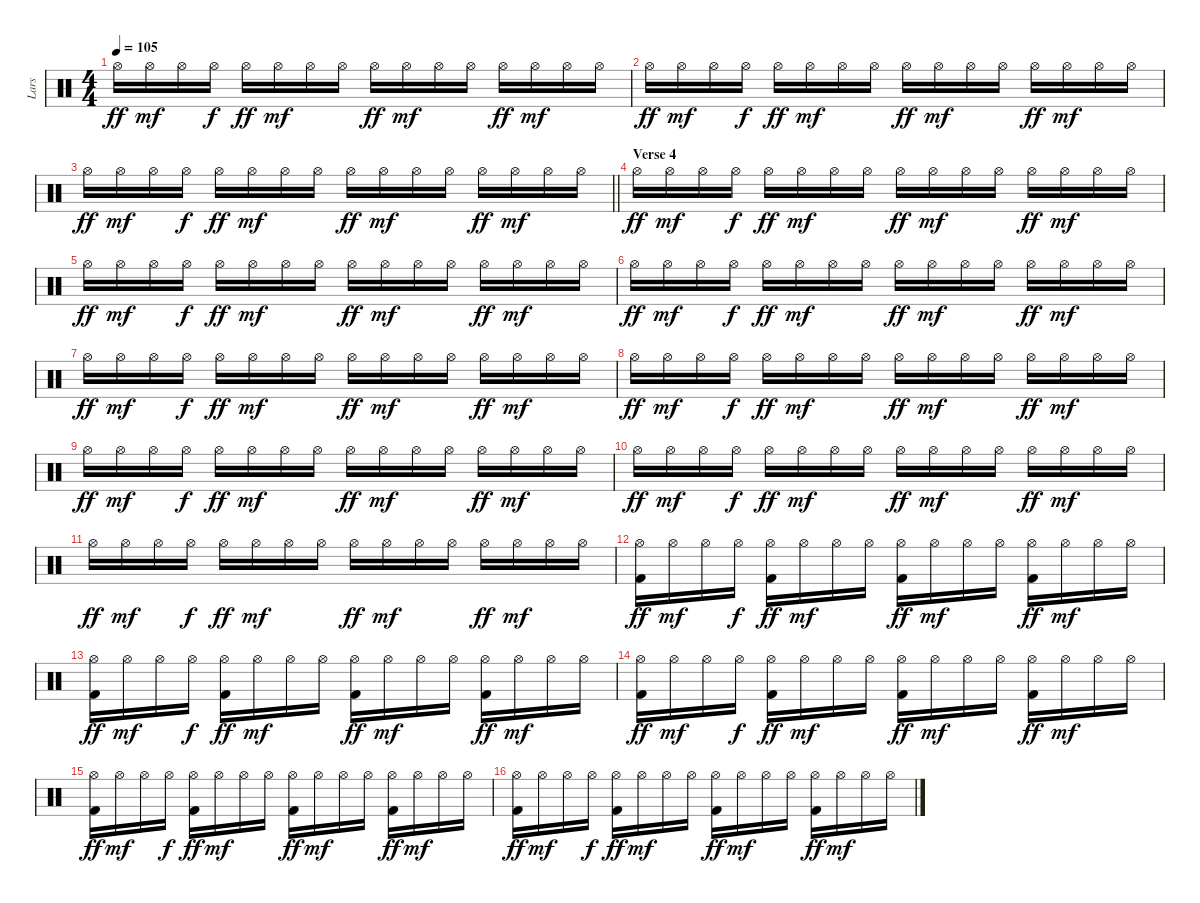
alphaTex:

\track ("Lars" "Lars") {instrument percussion}
\staff {score}
\articulation defaults
\ts (4 4)
\tempo 105
\clef neutral
\ks c "Hi-Hat (open)".16{dy ff} "Hi-Hat (open)".16{dy mf} "Hi-Hat (open)".16 "Hi-Hat (open)".16{dy f} "Hi-Hat (open)".16{dy ff} "Hi-Hat (open)".16{dy mf} "Hi-Hat (open)".16 "Hi-Hat (open)".16 "Hi-Hat (open)".16{dy ff} "Hi-Hat (open)".16{dy mf} "Hi-Hat (open)".16 "Hi-Hat (open)".16 "Hi-Hat (open)".16{dy ff} "Hi-Hat (open)".16{dy mf} "Hi-Hat (open)".16 "Hi-Hat (open)".16
|
"Hi-Hat (open)".16{dy ff} "Hi-Hat (open)".16{dy mf} "Hi-Hat (open)".16 "Hi-Hat (open)".16{dy f} "Hi-Hat (open)".16{dy ff} "Hi-Hat (open)".16{dy mf} "Hi-Hat (open)".16 "Hi-Hat (open)".16 "Hi-Hat (open)".16{dy ff} "Hi-Hat (open)".16{dy mf} "Hi-Hat (open)".16 "Hi-Hat (open)".16 "Hi-Hat (open)".16{dy ff} "Hi-Hat (open)".16{dy mf} "Hi-Hat (open)".16 "Hi-Hat (open)".16 |
\barLineRight lightlight "Hi-Hat (open)".16{dy ff} "Hi-Hat (open)".16{dy mf} "Hi-Hat (open)".16 "Hi-Hat (open)".16{dy f} "Hi-Hat (open)".16{dy ff} "Hi-Hat (open)".16{dy mf} "Hi-Hat (open)".16 "Hi-Hat (open)".16 "Hi-Hat (open)".16{dy ff} "Hi-Hat (open)".16{dy mf} "Hi-Hat (open)".16 "Hi-Hat (open)".16 "Hi-Hat (open)".16{dy ff} "Hi-Hat (open)".16{dy mf} "Hi-Hat (open)".16 "Hi-Hat (open)".16
|
\section ("" "Verse 4")
"Hi-Hat (open)".16{dy ff} "Hi-Hat (open)".16{dy mf} "Hi-Hat (open)".16 "Hi-Hat (open)".16{dy f} "Hi-Hat (open)".16{dy ff} "Hi-Hat (open)".16{dy mf} "Hi-Hat (open)".16 "Hi-Hat (open)".16 "Hi-Hat (open)".16{dy ff} "Hi-Hat (open)".16{dy mf} "Hi-Hat (open)".16 "Hi-Hat (open)".16 "Hi-Hat (open)".16{dy ff} "Hi-Hat (open)".16{dy mf} "Hi-Hat (open)".16 "Hi-Hat (open)".16 |
"Hi-Hat (open)".16{dy ff} "Hi-Hat (open)".16{dy mf} "Hi-Hat (open)".16 "Hi-Hat (open)".16{dy f} "Hi-Hat (open)".16{dy ff} "Hi-Hat (open)".16{dy mf} "Hi-Hat (open)".16 "Hi-Hat (open)".16 "Hi-Hat (open)".16{dy ff} "Hi-Hat (open)".16{dy mf} "Hi-Hat (open)".16 "Hi-Hat (open)".16 "Hi-Hat (open)".16{dy ff} "Hi-Hat (open)".16{dy mf} "Hi-Hat (open)".16 "Hi-Hat (open)".16 |
"Hi-Hat (open)".16{dy ff} "Hi-Hat (open)".16{dy mf} "Hi-Hat (open)".16 "Hi-Hat (open)".16{dy f} "Hi-Hat (open)".16{dy ff} "Hi-Hat (open)".16{dy mf} "Hi-Hat (open)".16 "Hi-Hat (open)".16 "Hi-Hat (open)".16{dy ff} "Hi-Hat (open)".16{dy mf} "Hi-Hat (open)".16 "Hi-Hat (open)".16 "Hi-Hat (open)".16{dy ff} "Hi-Hat (open)".16{dy mf} "Hi-Hat (open)".16 "Hi-Hat (open)".16 |
"Hi-Hat (open)".16{dy ff} "Hi-Hat (open)".16{dy mf} "Hi-Hat (open)".16 "Hi-Hat (open)".16{dy f} "Hi-Hat (open)".16{dy ff} "Hi-Hat (open)".16{dy mf} "Hi-Hat (open)".16 "Hi-Hat (open)".16 "Hi-Hat (open)".16{dy ff} "Hi-Hat (open)".16{dy mf} "Hi-Hat (open)".16 "Hi-Hat (open)".16 "Hi-Hat (open)".16{dy ff} "Hi-Hat (open)".16{dy mf} "Hi-Hat (open)".16 "Hi-Hat (open)".16 |
"Hi-Hat (open)".16{dy ff} "Hi-Hat (open)".16{dy mf} "Hi-Hat (open)".16 "Hi-Hat (open)".16{dy f} "Hi-Hat (open)".16{dy ff} "Hi-Hat (open)".16{dy mf} "Hi-Hat (open)".16 "Hi-Hat (open)".16 "Hi-Hat (open)".16{dy ff} "Hi-Hat (open)".16{dy mf} "Hi-Hat (open)".16 "Hi-Hat (open)".16 "Hi-Hat (open)".16{dy ff} "Hi-Hat (open)".16{dy mf} "Hi-Hat (open)".16 "Hi-Hat (open)".16 |
"Hi-Hat (open)".16{dy ff} "Hi-Hat (open)".16{dy mf} "Hi-Hat (open)".16 "Hi-Hat (open)".16{dy f} "Hi-Hat (open)".16{dy ff} "Hi-Hat (open)".16{dy mf} "Hi-Hat (open)".16 "Hi-Hat (open)".16 "Hi-Hat (open)".16{dy ff} "Hi-Hat (open)".16{dy mf} "Hi-Hat (open)".16 "Hi-Hat (open)".16 "Hi-Hat (open)".16{dy ff} "Hi-Hat (open)".16{dy mf} "Hi-Hat (open)".16 "Hi-Hat (open)".16 |
"Hi-Hat (open)".16{dy ff} "Hi-Hat (open)".16{dy mf} "Hi-Hat (open)".16 "Hi-Hat (open)".16{dy f} "Hi-Hat (open)".16{dy ff} "Hi-Hat (open)".16{dy mf} "Hi-Hat (open)".16 "Hi-Hat (open)".16 "Hi-Hat (open)".16{dy ff} "Hi-Hat (open)".16{dy mf} "Hi-Hat (open)".16 "Hi-Hat (open)".16 "Hi-Hat (open)".16{dy ff} "Hi-Hat (open)".16{dy mf} "Hi-Hat (open)".16 "Hi-Hat (open)".16 |
"Hi-Hat (open)".16{dy ff} "Hi-Hat (open)".16{dy mf} "Hi-Hat (open)".16 "Hi-Hat (open)".16{dy f} "Hi-Hat (open)".16{dy ff} "Hi-Hat (open)".16{dy mf} "Hi-Hat (open)".16 "Hi-Hat (open)".16 "Hi-Hat (open)".16{dy ff} "Hi-Hat (open)".16{dy mf} "Hi-Hat (open)".16 "Hi-Hat (open)".16 "Hi-Hat (open)".16{dy ff} "Hi-Hat (open)".16{dy mf} "Hi-Hat (open)".16 "Hi-Hat (open)".16 |
("Hi-Hat (open)" "Kick (hit) 2").16{dy ff} "Hi-Hat (open)".16{dy mf} "Hi-Hat (open)".16 "Hi-Hat (open)".16{dy f} ("Hi-Hat (open)" "Kick (hit) 2").16{dy ff} "Hi-Hat (open)".16{dy mf} "Hi-Hat (open)".16 "Hi-Hat (open)".16 ("Hi-Hat (open)" "Kick (hit) 2").16{dy ff} "Hi-Hat (open)".16{dy mf} "Hi-Hat (open)".16 "Hi-Hat (open)".16 ("Hi-Hat (open)" "Kick (hit) 2").16{dy ff} "Hi-Hat (open)".16{dy mf} "Hi-Hat (open)".16 "Hi-Hat (open)".16 |
("Hi-Hat (open)" "Kick (hit) 2").16{dy ff} "Hi-Hat (open)".16{dy mf} "Hi-Hat (open)".16 "Hi-Hat (open)".16{dy f} ("Hi-Hat (open)" "Kick (hit) 2").16{dy ff} "Hi-Hat (open)".16{dy mf} "Hi-Hat (open)".16 "Hi-Hat (open)".16 ("Hi-Hat (open)" "Kick (hit) 2").16{dy ff} "Hi-Hat (open)".16{dy mf} "Hi-Hat (open)".16 "Hi-Hat (open)".16 ("Hi-Hat (open)" "Kick (hit) 2").16{dy ff} "Hi-Hat (open)".16{dy mf} "Hi-Hat (open)".16 "Hi-Hat (open)".16 |
("Hi-Hat (open)" "Kick (hit) 2").16{dy ff} "Hi-Hat (open)".16{dy mf} "Hi-Hat (open)".16 "Hi-Hat (open)".16{dy f} ("Hi-Hat (open)" "Kick (hit) 2").16{dy ff} "Hi-Hat (open)".16{dy mf} "Hi-Hat (open)".16 "Hi-Hat (open)".16 ("Hi-Hat (open)" "Kick (hit) 2").16{dy ff} "Hi-Hat (open)".16{dy mf} "Hi-Hat (open)".16 "Hi-Hat (open)".16 ("Hi-Hat (open)" "Kick (hit) 2").16{dy ff} "Hi-Hat (open)".16{dy mf} "Hi-Hat (open)".16 "Hi-Hat (open)".16 |
("Hi-Hat (open)" "Kick (hit) 2").16{dy ff} "Hi-Hat (open)".16{dy mf} "Hi-Hat (open)".16 "Hi-Hat (open)".16{dy f} ("Hi-Hat (open)" "Kick (hit) 2").16{dy ff} "Hi-Hat (open)".16{dy mf} "Hi-Hat (open)".16 "Hi-Hat (open)".16 ("Hi-Hat (open)" "Kick (hit) 2").16{dy ff} "Hi-Hat (open)".16{dy mf} "Hi-Hat (open)".16 "Hi-Hat (open)".16 ("Hi-Hat (open)" "Kick (hit) 2").16{dy ff} "Hi-Hat (open)".16{dy mf} "Hi-Hat (open)".16 "Hi-Hat (open)".16 |
("Hi-Hat (open)" "Kick (hit) 2").16{dy ff} "Hi-Hat (open)".16{dy mf} "Hi-Hat (open)".16 "Hi-Hat (open)".16{dy f} ("Hi-Hat (open)" "Kick (hit) 2").16{dy ff} "Hi-Hat (open)".16{dy mf} "Hi-Hat (open)".16 "Hi-Hat (open)".16 ("Hi-Hat (open)" "Kick (hit) 2").16{dy ff} "Hi-Hat (open)".16{dy mf} "Hi-Hat (open)".16 "Hi-Hat (open)".16 ("Hi-Hat (open)" "Kick (hit) 2").16{dy ff} "Hi-Hat (open)".16{dy mf} "Hi-Hat (open)".16 "Hi-Hat (open)".16
